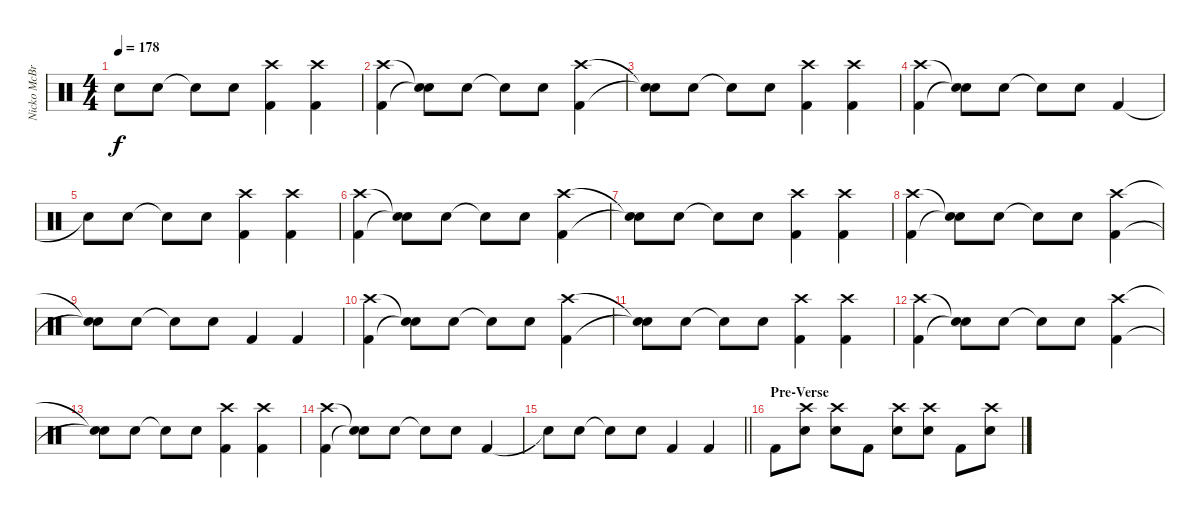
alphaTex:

\track ("Nicko McBrian" "Nicko McBr") {instrument percussion}
\staff {score}
\articulation defaults
\ts (4 4)
\tempo 178
\clef neutral
\ks c "Snare (hit)"{t}.8{dy f} "Electric Snare (hit)".8 "Snare (hit)"{t}.8 "Electric Snare (hit)".8
("Crash high (hit)" "Kick (hit) 2").4 ("Crash high (hit)" "Kick (hit) 2").4 |
("Crash high (hit)" "Kick (hit) 2").4 ("Snare (hit)"{t} "Snare (hit)"{t}).8 "Electric Snare (hit)".8 "Snare (hit)"{t}.8 "Electric Snare (hit)".8 ("Crash high (hit)" "Kick (hit) 2").4 |
("Snare (hit)"{t} "Snare (hit)"{t}).8 "Electric Snare (hit)".8 "Snare (hit)"{t}.8 "Electric Snare (hit)".8 ("Crash high (hit)" "Kick (hit) 2").4 ("Crash high (hit)" "Kick (hit) 2").4 |
("Crash high (hit)" "Kick (hit) 2").4 ("Snare (hit)"{t} "Snare (hit)"{t}).8 "Electric Snare (hit)".8 "Snare (hit)"{t}.8 "Electric Snare (hit)".8 "Kick (hit) 2".4 |
"Snare (hit)"{t}.8 "Electric Snare (hit)".8 "Snare (hit)"{t}.8 "Electric Snare (hit)".8 ("Crash high (hit)" "Kick (hit) 2").4 ("Crash high (hit)" "Kick (hit) 2").4 |
("Crash high (hit)" "Kick (hit) 2").4 ("Snare (hit)"{t} "Snare (hit)"{t}).8 "Electric Snare (hit)".8 "Snare (hit)"{t}.8 "Electric Snare (hit)".8 ("Crash high (hit)" "Kick (hit) 2").4 |
("Snare (hit)"{t} "Snare (hit)"{t}).8 "Electric Snare (hit)".8 "Snare (hit)"{t}.8 "Electric Snare (hit)".8 ("Crash high (hit)" "Kick (hit) 2").4 ("Crash high (hit)" "Kick (hit) 2").4 |
("Crash high (hit)" "Kick (hit) 2").4 ("Snare (hit)"{t} "Snare (hit)"{t}).8 "Electric Snare (hit)".8 "Snare (hit)"{t}.8 "Electric Snare (hit)".8 ("Crash high (hit)" "Kick (hit) 2").4 |
("Snare (hit)"{t} "Snare (hit)"{t}).8 "Electric Snare (hit)".8 "Snare (hit)"{t}.8 "Electric Snare (hit)".8 "Kick (hit) 2".4 "Kick (hit) 2".4 |
("Crash high (hit)" "Kick (hit) 2").4 ("Snare (hit)"{t} "Snare (hit)"{t}).8 "Electric Snare (hit)".8 "Snare (hit)"{t}.8 "Electric Snare (hit)".8 ("Crash high (hit)" "Kick (hit) 2").4 |
("Snare (hit)"{t} "Snare (hit)"{t}).8 "Electric Snare (hit)".8 "Snare (hit)"{t}.8 "Electric Snare (hit)".8 ("Crash high (hit)" "Kick (hit) 2").4 ("Crash high (hit)" "Kick (hit) 2").4 |
("Crash high (hit)" "Kick (hit) 2").4 ("Snare (hit)"{t} "Snare (hit)"{t}).8 "Electric Snare (hit)".8 "Snare (hit)"{t}.8 "Electric Snare (hit)".8 ("Crash high (hit)" "Kick (hit) 2").4 |
("Snare (hit)"{t} "Snare (hit)"{t}).8 "Electric Snare (hit)".8 "Snare (hit)"{t}.8 "Electric Snare (hit)".8 ("Crash high (hit)" "Kick (hit) 2").4 ("Crash high (hit)" "Kick (hit) 2").4 |
("Crash high (hit)" "Kick (hit) 2").4 ("Snare (hit)"{t} "Snare (hit)"{t}).8 "Electric Snare (hit)".8 "Snare (hit)"{t}.8 "Electric Snare (hit)".8 "Kick (hit) 2".4 |
\barLineRight lightlight "Snare (hit)"{t}.8 "Electric Snare (hit)".8 "Snare (hit)"{t}.8 "Electric Snare (hit)".8 "Kick (hit) 2".4 "Kick (hit) 2".4
|
\section ("" "Pre-Verse")
"Kick (hit) 2".8 ("Crash high (hit)" "Electric Snare (hit)").8 ("Crash high (hit)" "Electric Snare (hit)").8 "Kick (hit) 2".8 ("Crash high (hit)" "Electric Snare (hit)").8 ("Crash high (hit)" "Electric Snare (hit)").8 "Kick (hit) 2".8 ("Crash high (hit)" "Electric Snare (hit)").8
